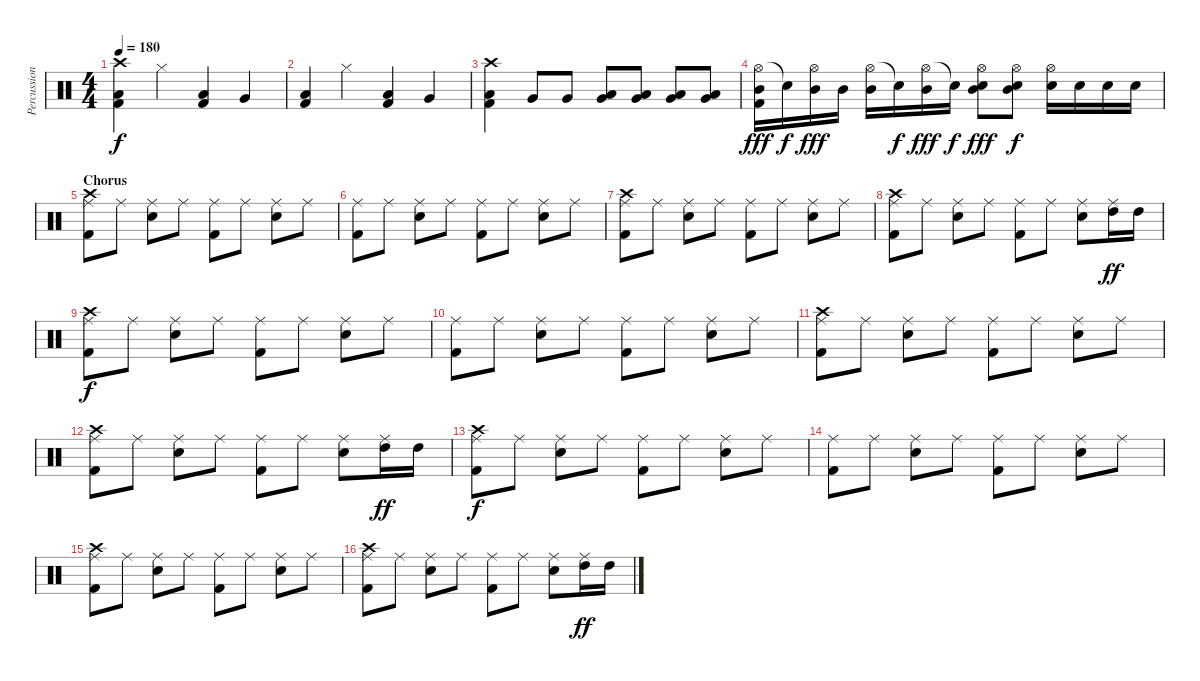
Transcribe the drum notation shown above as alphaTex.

\track ("Percussion" "Percussion") {instrument percussion}
\staff {score}
\articulation defaults
\ts (4 4)
\tempo 180
\clef neutral
\ks c
("Crash high (hit)" "Low Tom (hit)" "Kick (hit) 2").4{dy f} "Hi-Hat (closed)".4 ("Low Tom (hit)" "Kick (hit) 2").4 "Very Low Tom (hit)".4 |
("Low Tom (hit)" "Kick (hit) 2").4 "Hi-Hat (closed)".4 ("Low Tom (hit)" "Kick (hit) 2").4 "Very Low Tom (hit)".4 |
("Crash high (hit)" "Low Tom (hit)" "Kick (hit) 2").4 "Very Low Tom (hit)".8 "Very Low Tom (hit)".8 ("Low Tom (hit)" "Very Low Tom (hit)").8 ("Low Tom (hit)" "Very Low Tom (hit)").8 ("Low Tom (hit)" "Very Low Tom (hit)").8 ("Low Tom (hit)" "Very Low Tom (hit)").8 |
("Hi-Hat (open)" "Mid Tom (hit)" "Kick (hit) 2").16{dy fff} "Electric Snare (hit)"{t}.16{dy f} ("Hi-Hat (open)" "Mid Tom (hit)").16{dy fff} "Mid Tom (hit)".16 ("Hi-Hat (open)" "Mid Tom (hit)").16 "Snare (hit)"{t}.16{dy f} ("Hi-Hat (open)" "Mid Tom (hit)").16{dy fff} "Snare (hit)"{t}.16{dy f} ("Hi-Hat (open)" "Electric Snare (hit)" "Mid Tom (hit)").8{dy fff} ("Hi-Hat (open)" "Electric Snare (hit)" "Mid Tom (hit)").8{dy f} ("Hi-Hat (open)" "Electric Snare (hit)").16 "Electric Snare (hit)".16 "Electric Snare (hit)".16 "Electric Snare (hit)".16 |
\section ("" "Chorus")
("Crash high (hit)" "Ride (middle)" "Kick (hit) 2").8 "Ride (middle)".8 ("Ride (middle)" "Electric Snare (hit)").8 "Ride (middle)".8 ("Ride (middle)" "Kick (hit) 2").8 "Ride (middle)".8 ("Ride (middle)" "Electric Snare (hit)").8 "Ride (middle)".8 |
("Ride (middle)" "Kick (hit) 2").8 "Ride (middle)".8 ("Ride (middle)" "Electric Snare (hit)").8 "Ride (middle)".8 ("Ride (middle)" "Kick (hit) 2").8 "Ride (middle)".8 ("Ride (middle)" "Electric Snare (hit)").8 "Ride (middle)".8 |
("Crash high (hit)" "Ride (middle)" "Kick (hit) 2").8 "Ride (middle)".8 ("Ride (middle)" "Electric Snare (hit)").8 "Ride (middle)".8 ("Ride (middle)" "Kick (hit) 2").8 "Ride (middle)".8 ("Ride (middle)" "Electric Snare (hit)").8 "Ride (middle)".8 |
("Crash high (hit)" "Ride (middle)" "Kick (hit) 2").8 "Ride (middle)".8 ("Ride (middle)" "Electric Snare (hit)").8 "Ride (middle)".8 ("Ride (middle)" "Kick (hit) 2").8 "Ride (middle)".8 ("Ride (middle)" "Electric Snare (hit)").8 ("Ride (middle)" "High Tom (hit)").16{dy ff} "High Tom (hit)".16 |
("Crash high (hit)" "Ride (middle)" "Kick (hit) 2").8{dy f} "Ride (middle)".8 ("Ride (middle)" "Electric Snare (hit)").8 "Ride (middle)".8 ("Ride (middle)" "Kick (hit) 2").8 "Ride (middle)".8 ("Ride (middle)" "Electric Snare (hit)").8 "Ride (middle)".8 |
("Ride (middle)" "Kick (hit) 2").8 "Ride (middle)".8 ("Ride (middle)" "Electric Snare (hit)").8 "Ride (middle)".8 ("Ride (middle)" "Kick (hit) 2").8 "Ride (middle)".8 ("Ride (middle)" "Electric Snare (hit)").8 "Ride (middle)".8 |
("Crash high (hit)" "Ride (middle)" "Kick (hit) 2").8 "Ride (middle)".8 ("Ride (middle)" "Electric Snare (hit)").8 "Ride (middle)".8 ("Ride (middle)" "Kick (hit) 2").8 "Ride (middle)".8 ("Ride (middle)" "Electric Snare (hit)").8 "Ride (middle)".8 |
("Crash high (hit)" "Ride (middle)" "Kick (hit) 2").8 "Ride (middle)".8 ("Ride (middle)" "Electric Snare (hit)").8 "Ride (middle)".8 ("Ride (middle)" "Kick (hit) 2").8 "Ride (middle)".8 ("Ride (middle)" "Electric Snare (hit)").8 ("Ride (middle)" "High Tom (hit)").16{dy ff} "High Tom (hit)".16 |
("Crash high (hit)" "Ride (middle)" "Kick (hit) 2").8{dy f} "Ride (middle)".8 ("Ride (middle)" "Electric Snare (hit)").8 "Ride (middle)".8 ("Ride (middle)" "Kick (hit) 2").8 "Ride (middle)".8 ("Ride (middle)" "Electric Snare (hit)").8 "Ride (middle)".8 |
("Ride (middle)" "Kick (hit) 2").8 "Ride (middle)".8 ("Ride (middle)" "Electric Snare (hit)").8 "Ride (middle)".8 ("Ride (middle)" "Kick (hit) 2").8 "Ride (middle)".8 ("Ride (middle)" "Electric Snare (hit)").8 "Ride (middle)".8 |
("Crash high (hit)" "Ride (middle)" "Kick (hit) 2").8 "Ride (middle)".8 ("Ride (middle)" "Electric Snare (hit)").8 "Ride (middle)".8 ("Ride (middle)" "Kick (hit) 2").8 "Ride (middle)".8 ("Ride (middle)" "Electric Snare (hit)").8 "Ride (middle)".8 |
("Crash high (hit)" "Ride (middle)" "Kick (hit) 2").8 "Ride (middle)".8 ("Ride (middle)" "Electric Snare (hit)").8 "Ride (middle)".8 ("Ride (middle)" "Kick (hit) 2").8 "Ride (middle)".8 ("Ride (middle)" "Electric Snare (hit)").8 ("Ride (middle)" "High Tom (hit)").16{dy ff} "High Tom (hit)".16
